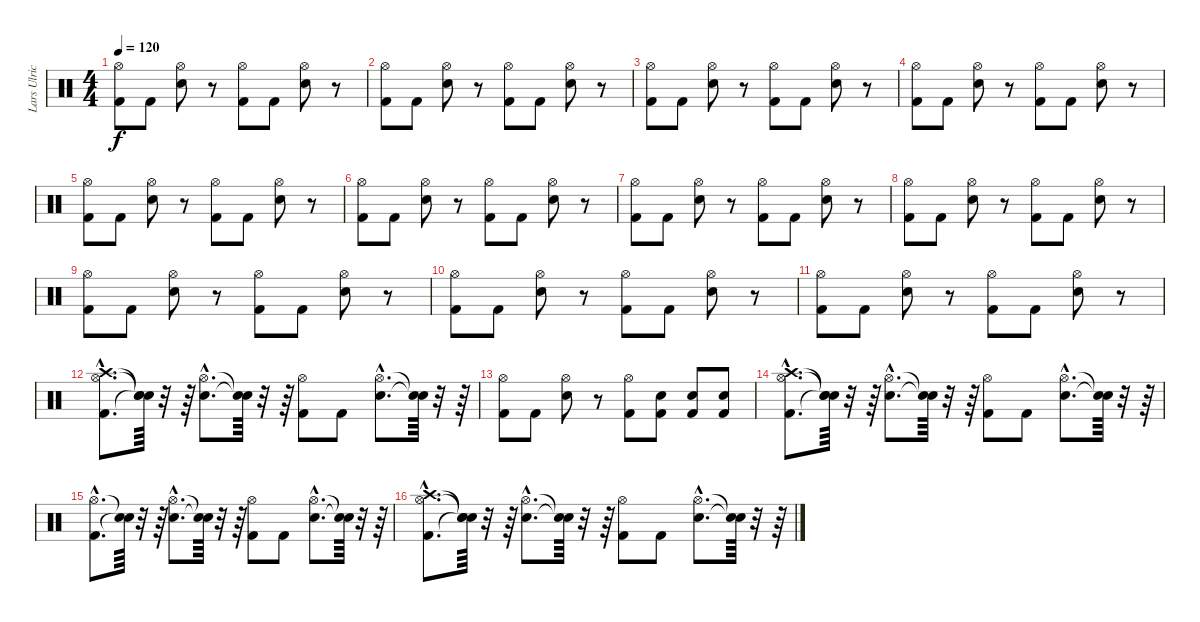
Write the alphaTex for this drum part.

\track ("Lars Ulrich" "Lars Ulric") {instrument percussion}
\staff {score}
\articulation defaults
\ts (4 4)
\tempo 120
\clef neutral
\ks c
("Kick (hit) 2" "Hi-Hat (open)").8{dy f} "Kick (hit) 2".8 ("Snare (hit) 2" "Hi-Hat (open)").8 r.8 ("Kick (hit) 2" "Hi-Hat (open)").8 "Kick (hit) 2".8 ("Snare (hit) 2" "Hi-Hat (open)").8 r.8 |
("Kick (hit) 2" "Hi-Hat (open)").8 "Kick (hit) 2".8 ("Snare (hit) 2" "Hi-Hat (open)").8 r.8 ("Kick (hit) 2" "Hi-Hat (open)").8 "Kick (hit) 2".8 ("Snare (hit) 2" "Hi-Hat (open)").8 r.8 |
("Kick (hit) 2" "Hi-Hat (open)").8 "Kick (hit) 2".8 ("Snare (hit) 2" "Hi-Hat (open)").8 r.8 ("Kick (hit) 2" "Hi-Hat (open)").8 "Kick (hit) 2".8 ("Snare (hit) 2" "Hi-Hat (open)").8 r.8 |
("Kick (hit) 2" "Hi-Hat (open)").8 "Kick (hit) 2".8 ("Snare (hit) 2" "Hi-Hat (open)").8 r.8 ("Kick (hit) 2" "Hi-Hat (open)").8 "Kick (hit) 2".8 ("Snare (hit) 2" "Hi-Hat (open)").8 r.8 |
("Kick (hit) 2" "Hi-Hat (open)").8 "Kick (hit) 2".8 ("Snare (hit) 2" "Hi-Hat (open)").8 r.8 ("Kick (hit) 2" "Hi-Hat (open)").8 "Kick (hit) 2".8 ("Snare (hit) 2" "Hi-Hat (open)").8 r.8 |
("Kick (hit) 2" "Hi-Hat (open)").8 "Kick (hit) 2".8 ("Snare (hit) 2" "Hi-Hat (open)").8 r.8 ("Kick (hit) 2" "Hi-Hat (open)").8 "Kick (hit) 2".8 ("Snare (hit) 2" "Hi-Hat (open)").8 r.8 |
("Kick (hit) 2" "Hi-Hat (open)").8 "Kick (hit) 2".8 ("Snare (hit) 2" "Hi-Hat (open)").8 r.8 ("Kick (hit) 2" "Hi-Hat (open)").8 "Kick (hit) 2".8 ("Snare (hit) 2" "Hi-Hat (open)").8 r.8 |
("Kick (hit) 2" "Hi-Hat (open)").8 "Kick (hit) 2".8 ("Snare (hit) 2" "Hi-Hat (open)").8 r.8 ("Kick (hit) 2" "Hi-Hat (open)").8 "Kick (hit) 2".8 ("Snare (hit) 2" "Hi-Hat (open)").8 r.8 |
("Kick (hit) 2" "Hi-Hat (open)").8 "Kick (hit) 2".8 ("Snare (hit) 2" "Hi-Hat (open)").8 r.8 ("Kick (hit) 2" "Hi-Hat (open)").8 "Kick (hit) 2".8 ("Snare (hit) 2" "Hi-Hat (open)").8 r.8 |
("Kick (hit) 2" "Hi-Hat (open)").8 "Kick (hit) 2".8 ("Snare (hit) 2" "Hi-Hat (open)").8 r.8 ("Kick (hit) 2" "Hi-Hat (open)").8 "Kick (hit) 2".8 ("Snare (hit) 2" "Hi-Hat (open)").8 r.8 |
("Kick (hit) 2" "Hi-Hat (open)").8 "Kick (hit) 2".8 ("Snare (hit) 2" "Hi-Hat (open)").8 r.8 ("Kick (hit) 2" "Hi-Hat (open)").8 "Kick (hit) 2".8 ("Snare (hit) 2" "Hi-Hat (open)").8 r.8 |
("Kick (hit) 2"{hac} "Hi-Hat (open)"{hac} "Crash high (hit)"{hac}).8{d} ("Snare (hit)"{t} "Snare (hit)"{t} "Snare (hit)"{t}).64 r.32 r.64 ("Snare (hit) 2"{hac} "Hi-Hat (open)"{hac}).8{d} ("Snare (hit)"{t} "Snare (hit)"{t}).64 r.32 r.64 ("Kick (hit) 2" "Hi-Hat (open)").8 "Kick (hit) 2".8 ("Snare (hit) 2"{hac} "Hi-Hat (open)"{hac}).8{d} ("Snare (hit)"{t} "Snare (hit)"{t}).64 r.32 r.64 |
("Kick (hit) 2" "Hi-Hat (open)").8 "Kick (hit) 2".8 ("Snare (hit) 2" "Hi-Hat (open)").8 r.8 ("Kick (hit) 2" "Hi-Hat (open)").8 ("Kick (hit) 2" "Snare (hit) 2").8 ("Kick (hit) 2" "Snare (hit) 2").8 ("Kick (hit) 2" "Snare (hit) 2").8 |
("Kick (hit) 2"{hac} "Hi-Hat (open)"{hac} "Crash high (hit)"{hac}).8{d} ("Snare (hit)"{t} "Snare (hit)"{t} "Snare (hit)"{t}).64 r.32 r.64 ("Snare (hit) 2"{hac} "Hi-Hat (open)"{hac}).8{d} ("Snare (hit)"{t} "Snare (hit)"{t}).64 r.32 r.64 ("Kick (hit) 2" "Hi-Hat (open)").8 "Kick (hit) 2".8 ("Snare (hit) 2"{hac} "Hi-Hat (open)"{hac}).8{d} ("Snare (hit)"{t} "Snare (hit)"{t}).64 r.32 r.64 |
("Kick (hit) 2"{hac} "Hi-Hat (open)"{hac}).8{d} ("Snare (hit)"{t} "Snare (hit)"{t}).64 r.32 r.64 ("Snare (hit) 2"{hac} "Hi-Hat (open)"{hac}).8{d} ("Snare (hit)"{t} "Snare (hit)"{t}).64 r.32 r.64 ("Kick (hit) 2" "Hi-Hat (open)").8 "Kick (hit) 2".8 ("Snare (hit) 2"{hac} "Hi-Hat (open)"{hac}).8{d} ("Snare (hit)"{t} "Snare (hit)"{t}).64 r.32 r.64 |
("Kick (hit) 2"{hac} "Hi-Hat (open)"{hac} "Crash high (hit)"{hac}).8{d} ("Snare (hit)"{t} "Snare (hit)"{t} "Snare (hit)"{t}).64 r.32 r.64 ("Snare (hit) 2"{hac} "Hi-Hat (open)"{hac}).8{d} ("Snare (hit)"{t} "Snare (hit)"{t}).64 r.32 r.64 ("Kick (hit) 2" "Hi-Hat (open)").8 "Kick (hit) 2".8 ("Snare (hit) 2"{hac} "Hi-Hat (open)"{hac}).8{d} ("Snare (hit)"{t} "Snare (hit)"{t}).64 r.32 r.64
